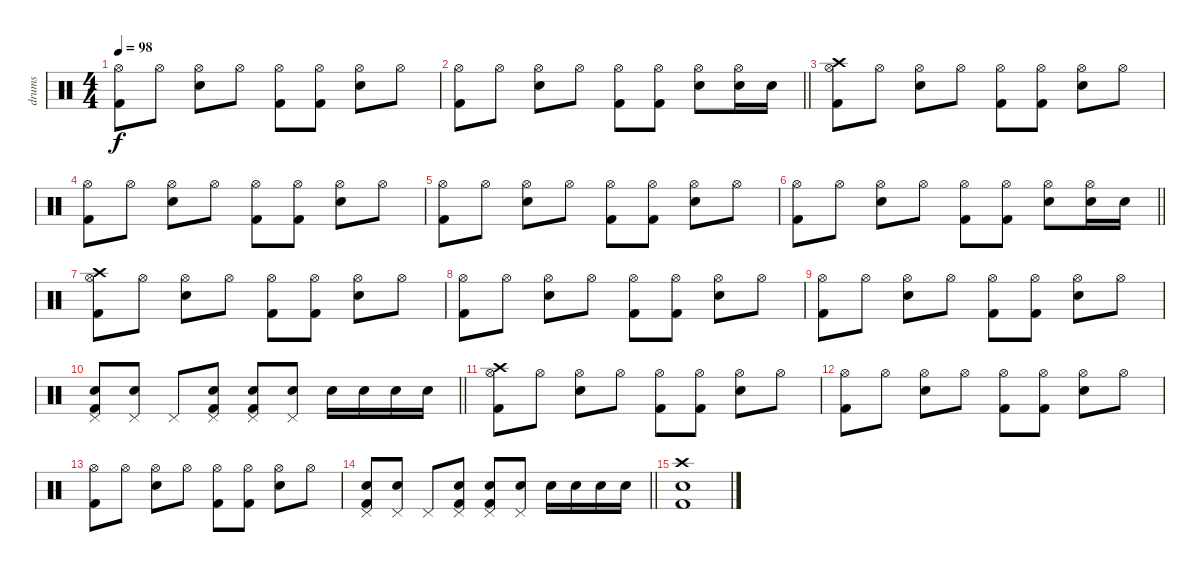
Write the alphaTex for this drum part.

\track ("drums" "drums") {instrument percussion}
\staff {score}
\articulation defaults
\ts (4 4)
\tempo 98
\clef neutral
\ks c
("Kick (hit) 2" "Hi-Hat (open)").8{dy f} "Hi-Hat (open)".8 ("Electric Snare (hit)" "Hi-Hat (open)").8 "Hi-Hat (open)".8 ("Kick (hit) 2" "Hi-Hat (open)").8 ("Kick (hit) 2" "Hi-Hat (open)").8 ("Electric Snare (hit)" "Hi-Hat (open)").8 "Hi-Hat (open)".8 |
\barLineRight lightlight
("Kick (hit) 2" "Hi-Hat (open)").8 "Hi-Hat (open)".8 ("Electric Snare (hit)" "Hi-Hat (open)").8 "Hi-Hat (open)".8 ("Kick (hit) 2" "Hi-Hat (open)").8 ("Kick (hit) 2" "Hi-Hat (open)").8 ("Electric Snare (hit)" "Hi-Hat (open)").8 ("Electric Snare (hit)" "Hi-Hat (open)").16 "Electric Snare (hit)".16 |
("Kick (hit) 2" "Hi-Hat (open)" "Crash high (hit)").8 "Hi-Hat (open)".8 ("Electric Snare (hit)" "Hi-Hat (open)").8 "Hi-Hat (open)".8 ("Kick (hit) 2" "Hi-Hat (open)").8 ("Kick (hit) 2" "Hi-Hat (open)").8 ("Electric Snare (hit)" "Hi-Hat (open)").8 "Hi-Hat (open)".8 |
("Kick (hit) 2" "Hi-Hat (open)").8 "Hi-Hat (open)".8 ("Electric Snare (hit)" "Hi-Hat (open)").8 "Hi-Hat (open)".8 ("Kick (hit) 2" "Hi-Hat (open)").8 ("Kick (hit) 2" "Hi-Hat (open)").8 ("Electric Snare (hit)" "Hi-Hat (open)").8 "Hi-Hat (open)".8 |
("Kick (hit) 2" "Hi-Hat (open)").8 "Hi-Hat (open)".8 ("Electric Snare (hit)" "Hi-Hat (open)").8 "Hi-Hat (open)".8 ("Kick (hit) 2" "Hi-Hat (open)").8 ("Kick (hit) 2" "Hi-Hat (open)").8 ("Electric Snare (hit)" "Hi-Hat (open)").8 "Hi-Hat (open)".8 |
\barLineRight lightlight
("Kick (hit) 2" "Hi-Hat (open)").8 "Hi-Hat (open)".8 ("Electric Snare (hit)" "Hi-Hat (open)").8 "Hi-Hat (open)".8 ("Kick (hit) 2" "Hi-Hat (open)").8 ("Kick (hit) 2" "Hi-Hat (open)").8 ("Electric Snare (hit)" "Hi-Hat (open)").8 ("Electric Snare (hit)" "Hi-Hat (open)").16 "Electric Snare (hit)".16 |
("Kick (hit) 2" "Hi-Hat (open)" "Crash high (hit)").8 "Hi-Hat (open)".8 ("Electric Snare (hit)" "Hi-Hat (open)").8 "Hi-Hat (open)".8 ("Kick (hit) 2" "Hi-Hat (open)").8 ("Kick (hit) 2" "Hi-Hat (open)").8 ("Electric Snare (hit)" "Hi-Hat (open)").8 "Hi-Hat (open)".8 |
("Kick (hit) 2" "Hi-Hat (open)").8 "Hi-Hat (open)".8 ("Electric Snare (hit)" "Hi-Hat (open)").8 "Hi-Hat (open)".8 ("Kick (hit) 2" "Hi-Hat (open)").8 ("Kick (hit) 2" "Hi-Hat (open)").8 ("Electric Snare (hit)" "Hi-Hat (open)").8 "Hi-Hat (open)".8 |
("Kick (hit) 2" "Hi-Hat (open)").8 "Hi-Hat (open)".8 ("Electric Snare (hit)" "Hi-Hat (open)").8 "Hi-Hat (open)".8 ("Kick (hit) 2" "Hi-Hat (open)").8 ("Kick (hit) 2" "Hi-Hat (open)").8 ("Electric Snare (hit)" "Hi-Hat (open)").8 "Hi-Hat (open)".8 |
\barLineRight lightlight
("Kick (hit) 2" "Electric Snare (hit)" "Pedal Hi-Hat (hit)").8 ("Electric Snare (hit)" "Pedal Hi-Hat (hit)").8 "Pedal Hi-Hat (hit)".8 ("Kick (hit) 2" "Electric Snare (hit)" "Pedal Hi-Hat (hit)").8 ("Kick (hit) 2" "Electric Snare (hit)" "Pedal Hi-Hat (hit)").8 ("Electric Snare (hit)" "Pedal Hi-Hat (hit)").8 "Electric Snare (hit)".16 "Electric Snare (hit)".16 "Electric Snare (hit)".16 "Electric Snare (hit)".16 |
("Kick (hit) 2" "Hi-Hat (open)" "Crash high (hit)").8 "Hi-Hat (open)".8 ("Electric Snare (hit)" "Hi-Hat (open)").8 "Hi-Hat (open)".8 ("Kick (hit) 2" "Hi-Hat (open)").8 ("Kick (hit) 2" "Hi-Hat (open)").8 ("Electric Snare (hit)" "Hi-Hat (open)").8 "Hi-Hat (open)".8 |
("Kick (hit) 2" "Hi-Hat (open)").8 "Hi-Hat (open)".8 ("Electric Snare (hit)" "Hi-Hat (open)").8 "Hi-Hat (open)".8 ("Kick (hit) 2" "Hi-Hat (open)").8 ("Kick (hit) 2" "Hi-Hat (open)").8 ("Electric Snare (hit)" "Hi-Hat (open)").8 "Hi-Hat (open)".8 |
("Kick (hit) 2" "Hi-Hat (open)").8 "Hi-Hat (open)".8 ("Electric Snare (hit)" "Hi-Hat (open)").8 "Hi-Hat (open)".8 ("Kick (hit) 2" "Hi-Hat (open)").8 ("Kick (hit) 2" "Hi-Hat (open)").8 ("Electric Snare (hit)" "Hi-Hat (open)").8 "Hi-Hat (open)".8 |
\barLineRight lightlight
("Kick (hit) 2" "Electric Snare (hit)" "Pedal Hi-Hat (hit)").8 ("Electric Snare (hit)" "Pedal Hi-Hat (hit)").8 "Pedal Hi-Hat (hit)".8 ("Kick (hit) 2" "Electric Snare (hit)" "Pedal Hi-Hat (hit)").8 ("Kick (hit) 2" "Electric Snare (hit)" "Pedal Hi-Hat (hit)").8 ("Electric Snare (hit)" "Pedal Hi-Hat (hit)").8 "Electric Snare (hit)".16 "Electric Snare (hit)".16 "Electric Snare (hit)".16 "Electric Snare (hit)".16 |
("Kick (hit) 2" "Electric Snare (hit)" "Crash high (hit)").1
